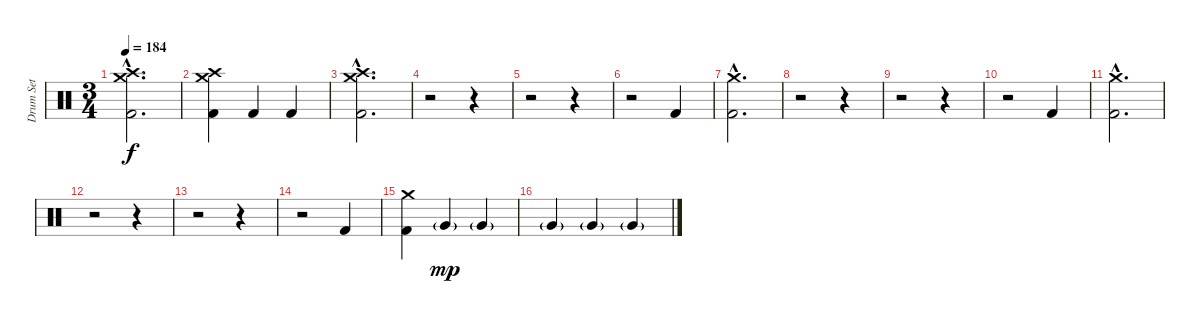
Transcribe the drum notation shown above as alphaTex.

\track ("Drum Set" "Drum Set") {instrument percussion}
\staff {score}
\articulation defaults
\ts (3 4)
\tempo 184
\clef neutral
\ks c
("Crash medium (hit)"{hac} "Crash high (hit)"{hac} "Kick (hit) 2"{hac}).2{d dy f} |
("Crash medium (hit)" "Crash high (hit)" "Kick (hit) 2").4 "Kick (hit) 2".4 "Kick (hit) 2".4 |
("Crash medium (hit)"{hac} "Crash high (hit)"{hac} "Kick (hit) 2"{hac}).2{d} |
r.2 r.4 |
r.2 r.4 |
r.2 "Kick (hit) 2".4 |
("Crash medium (hit)"{hac} "Kick (hit) 2"{hac}).2{d} |
r.2 r.4 |
r.2 r.4 |
r.2 "Kick (hit) 2".4 |
("Crash medium (hit)"{hac} "Kick (hit) 2"{hac}).2{d} |
r.2 r.4 |
r.2 r.4 |
r.2 "Kick (hit) 2".4 |
("Crash medium (hit)" "Kick (hit) 2").4 "Very Low Tom (hit)"{g}.4{dy mp} "Very Low Tom (hit)"{g}.4 |
"Very Low Tom (hit)"{g}.4 "Very Low Tom (hit)"{g}.4 "Very Low Tom (hit)"{g}.4
